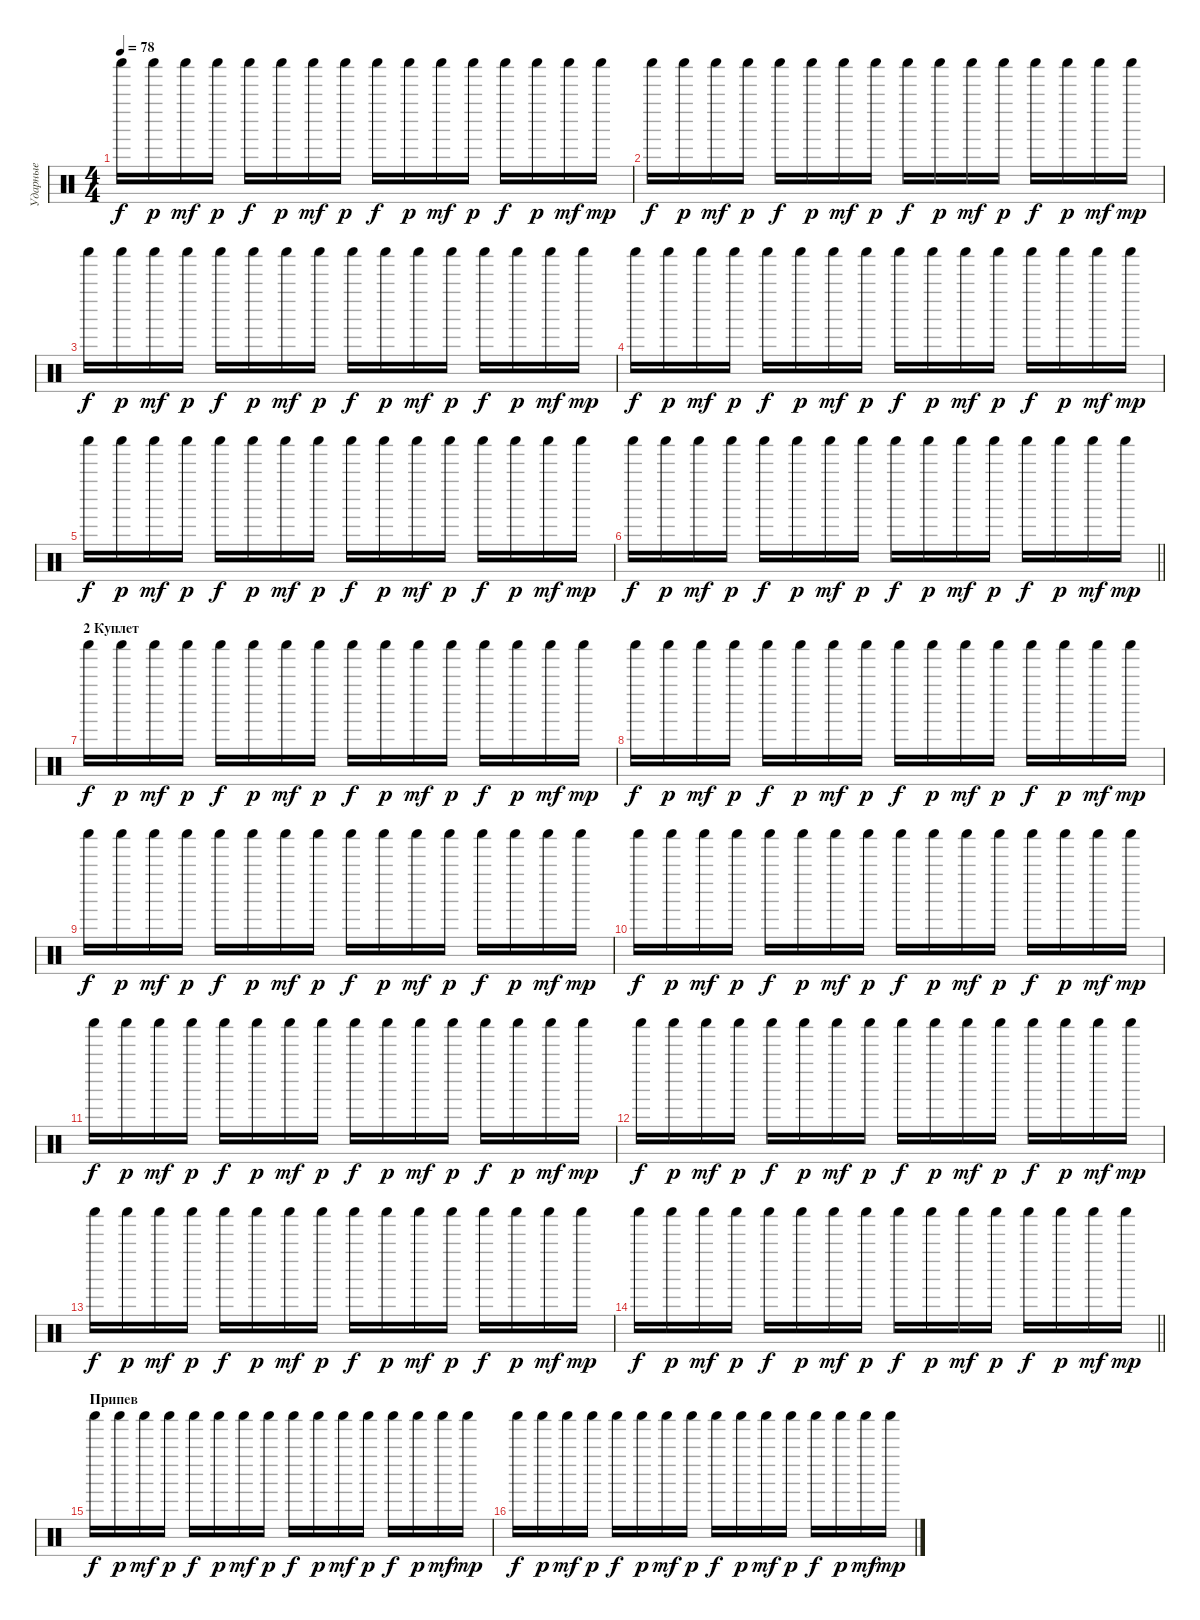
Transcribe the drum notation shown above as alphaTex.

\track ("Ударные" "Ударные") {instrument percussion}
\staff {score}
\articulation defaults
\ts (4 4)
\tempo 78
\clef neutral
\ks c "Shaker (hit)".16{dy f} "Shaker (hit)".16{dy p} "Shaker (hit)".16{dy mf} "Shaker (hit)".16{dy p} "Shaker (hit)".16{dy f} "Shaker (hit)".16{dy p} "Shaker (hit)".16{dy mf} "Shaker (hit)".16{dy p} "Shaker (hit)".16{dy f} "Shaker (hit)".16{dy p} "Shaker (hit)".16{dy mf} "Shaker (hit)".16{dy p} "Shaker (hit)".16{dy f} "Shaker (hit)".16{dy p} "Shaker (hit)".16{dy mf} "Shaker (hit)".16{dy mp}
|
"Shaker (hit)".16{dy f} "Shaker (hit)".16{dy p} "Shaker (hit)".16{dy mf} "Shaker (hit)".16{dy p} "Shaker (hit)".16{dy f} "Shaker (hit)".16{dy p} "Shaker (hit)".16{dy mf} "Shaker (hit)".16{dy p} "Shaker (hit)".16{dy f} "Shaker (hit)".16{dy p} "Shaker (hit)".16{dy mf} "Shaker (hit)".16{dy p} "Shaker (hit)".16{dy f} "Shaker (hit)".16{dy p} "Shaker (hit)".16{dy mf} "Shaker (hit)".16{dy mp} |
"Shaker (hit)".16{dy f} "Shaker (hit)".16{dy p} "Shaker (hit)".16{dy mf} "Shaker (hit)".16{dy p} "Shaker (hit)".16{dy f} "Shaker (hit)".16{dy p} "Shaker (hit)".16{dy mf} "Shaker (hit)".16{dy p} "Shaker (hit)".16{dy f} "Shaker (hit)".16{dy p} "Shaker (hit)".16{dy mf} "Shaker (hit)".16{dy p} "Shaker (hit)".16{dy f} "Shaker (hit)".16{dy p} "Shaker (hit)".16{dy mf} "Shaker (hit)".16{dy mp} |
"Shaker (hit)".16{dy f} "Shaker (hit)".16{dy p} "Shaker (hit)".16{dy mf} "Shaker (hit)".16{dy p} "Shaker (hit)".16{dy f} "Shaker (hit)".16{dy p} "Shaker (hit)".16{dy mf} "Shaker (hit)".16{dy p} "Shaker (hit)".16{dy f} "Shaker (hit)".16{dy p} "Shaker (hit)".16{dy mf} "Shaker (hit)".16{dy p} "Shaker (hit)".16{dy f} "Shaker (hit)".16{dy p} "Shaker (hit)".16{dy mf} "Shaker (hit)".16{dy mp} |
"Shaker (hit)".16{dy f} "Shaker (hit)".16{dy p} "Shaker (hit)".16{dy mf} "Shaker (hit)".16{dy p} "Shaker (hit)".16{dy f} "Shaker (hit)".16{dy p} "Shaker (hit)".16{dy mf} "Shaker (hit)".16{dy p} "Shaker (hit)".16{dy f} "Shaker (hit)".16{dy p} "Shaker (hit)".16{dy mf} "Shaker (hit)".16{dy p} "Shaker (hit)".16{dy f} "Shaker (hit)".16{dy p} "Shaker (hit)".16{dy mf} "Shaker (hit)".16{dy mp} |
\barLineRight lightlight "Shaker (hit)".16{dy f} "Shaker (hit)".16{dy p} "Shaker (hit)".16{dy mf} "Shaker (hit)".16{dy p} "Shaker (hit)".16{dy f} "Shaker (hit)".16{dy p} "Shaker (hit)".16{dy mf} "Shaker (hit)".16{dy p} "Shaker (hit)".16{dy f} "Shaker (hit)".16{dy p} "Shaker (hit)".16{dy mf} "Shaker (hit)".16{dy p} "Shaker (hit)".16{dy f} "Shaker (hit)".16{dy p} "Shaker (hit)".16{dy mf} "Shaker (hit)".16{dy mp}
|
\section ("" "2 Куплет")
"Shaker (hit)".16{dy f} "Shaker (hit)".16{dy p} "Shaker (hit)".16{dy mf} "Shaker (hit)".16{dy p} "Shaker (hit)".16{dy f} "Shaker (hit)".16{dy p} "Shaker (hit)".16{dy mf} "Shaker (hit)".16{dy p} "Shaker (hit)".16{dy f} "Shaker (hit)".16{dy p} "Shaker (hit)".16{dy mf} "Shaker (hit)".16{dy p} "Shaker (hit)".16{dy f} "Shaker (hit)".16{dy p} "Shaker (hit)".16{dy mf} "Shaker (hit)".16{dy mp} |
"Shaker (hit)".16{dy f} "Shaker (hit)".16{dy p} "Shaker (hit)".16{dy mf} "Shaker (hit)".16{dy p} "Shaker (hit)".16{dy f} "Shaker (hit)".16{dy p} "Shaker (hit)".16{dy mf} "Shaker (hit)".16{dy p} "Shaker (hit)".16{dy f} "Shaker (hit)".16{dy p} "Shaker (hit)".16{dy mf} "Shaker (hit)".16{dy p} "Shaker (hit)".16{dy f} "Shaker (hit)".16{dy p} "Shaker (hit)".16{dy mf} "Shaker (hit)".16{dy mp} |
"Shaker (hit)".16{dy f} "Shaker (hit)".16{dy p} "Shaker (hit)".16{dy mf} "Shaker (hit)".16{dy p} "Shaker (hit)".16{dy f} "Shaker (hit)".16{dy p} "Shaker (hit)".16{dy mf} "Shaker (hit)".16{dy p} "Shaker (hit)".16{dy f} "Shaker (hit)".16{dy p} "Shaker (hit)".16{dy mf} "Shaker (hit)".16{dy p} "Shaker (hit)".16{dy f} "Shaker (hit)".16{dy p} "Shaker (hit)".16{dy mf} "Shaker (hit)".16{dy mp} |
"Shaker (hit)".16{dy f} "Shaker (hit)".16{dy p} "Shaker (hit)".16{dy mf} "Shaker (hit)".16{dy p} "Shaker (hit)".16{dy f} "Shaker (hit)".16{dy p} "Shaker (hit)".16{dy mf} "Shaker (hit)".16{dy p} "Shaker (hit)".16{dy f} "Shaker (hit)".16{dy p} "Shaker (hit)".16{dy mf} "Shaker (hit)".16{dy p} "Shaker (hit)".16{dy f} "Shaker (hit)".16{dy p} "Shaker (hit)".16{dy mf} "Shaker (hit)".16{dy mp} |
"Shaker (hit)".16{dy f} "Shaker (hit)".16{dy p} "Shaker (hit)".16{dy mf} "Shaker (hit)".16{dy p} "Shaker (hit)".16{dy f} "Shaker (hit)".16{dy p} "Shaker (hit)".16{dy mf} "Shaker (hit)".16{dy p} "Shaker (hit)".16{dy f} "Shaker (hit)".16{dy p} "Shaker (hit)".16{dy mf} "Shaker (hit)".16{dy p} "Shaker (hit)".16{dy f} "Shaker (hit)".16{dy p} "Shaker (hit)".16{dy mf} "Shaker (hit)".16{dy mp} |
"Shaker (hit)".16{dy f} "Shaker (hit)".16{dy p} "Shaker (hit)".16{dy mf} "Shaker (hit)".16{dy p} "Shaker (hit)".16{dy f} "Shaker (hit)".16{dy p} "Shaker (hit)".16{dy mf} "Shaker (hit)".16{dy p} "Shaker (hit)".16{dy f} "Shaker (hit)".16{dy p} "Shaker (hit)".16{dy mf} "Shaker (hit)".16{dy p} "Shaker (hit)".16{dy f} "Shaker (hit)".16{dy p} "Shaker (hit)".16{dy mf} "Shaker (hit)".16{dy mp} |
"Shaker (hit)".16{dy f} "Shaker (hit)".16{dy p} "Shaker (hit)".16{dy mf} "Shaker (hit)".16{dy p} "Shaker (hit)".16{dy f} "Shaker (hit)".16{dy p} "Shaker (hit)".16{dy mf} "Shaker (hit)".16{dy p} "Shaker (hit)".16{dy f} "Shaker (hit)".16{dy p} "Shaker (hit)".16{dy mf} "Shaker (hit)".16{dy p} "Shaker (hit)".16{dy f} "Shaker (hit)".16{dy p} "Shaker (hit)".16{dy mf} "Shaker (hit)".16{dy mp} |
\barLineRight lightlight "Shaker (hit)".16{dy f} "Shaker (hit)".16{dy p} "Shaker (hit)".16{dy mf} "Shaker (hit)".16{dy p} "Shaker (hit)".16{dy f} "Shaker (hit)".16{dy p} "Shaker (hit)".16{dy mf} "Shaker (hit)".16{dy p} "Shaker (hit)".16{dy f} "Shaker (hit)".16{dy p} "Shaker (hit)".16{dy mf} "Shaker (hit)".16{dy p} "Shaker (hit)".16{dy f} "Shaker (hit)".16{dy p} "Shaker (hit)".16{dy mf} "Shaker (hit)".16{dy mp}
|
\section ("" "Припев")
"Shaker (hit)".16{dy f} "Shaker (hit)".16{dy p} "Shaker (hit)".16{dy mf} "Shaker (hit)".16{dy p} "Shaker (hit)".16{dy f} "Shaker (hit)".16{dy p} "Shaker (hit)".16{dy mf} "Shaker (hit)".16{dy p} "Shaker (hit)".16{dy f} "Shaker (hit)".16{dy p} "Shaker (hit)".16{dy mf} "Shaker (hit)".16{dy p} "Shaker (hit)".16{dy f} "Shaker (hit)".16{dy p} "Shaker (hit)".16{dy mf} "Shaker (hit)".16{dy mp} |
"Shaker (hit)".16{dy f} "Shaker (hit)".16{dy p} "Shaker (hit)".16{dy mf} "Shaker (hit)".16{dy p} "Shaker (hit)".16{dy f} "Shaker (hit)".16{dy p} "Shaker (hit)".16{dy mf} "Shaker (hit)".16{dy p} "Shaker (hit)".16{dy f} "Shaker (hit)".16{dy p} "Shaker (hit)".16{dy mf} "Shaker (hit)".16{dy p} "Shaker (hit)".16{dy f} "Shaker (hit)".16{dy p} "Shaker (hit)".16{dy mf} "Shaker (hit)".16{dy mp}
